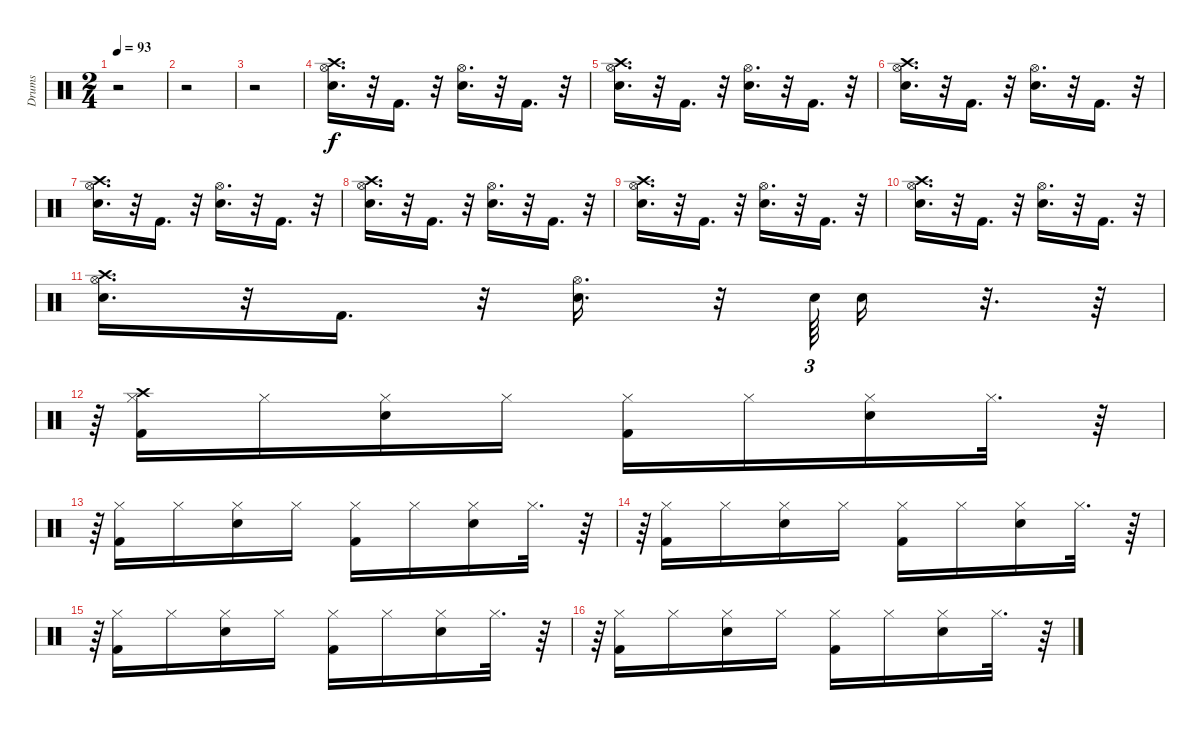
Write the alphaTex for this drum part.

\track ("Drums" "Drums") {instrument percussion}
\staff {score}
\articulation defaults
\ts (2 4)
\tempo 93
\clef neutral
\ks c
r.2{dy f} |
r.2 |
r.2 |
("Hi-Hat (open)" "Snare (hit) 2" "Crash high (hit)").16{d} r.32 "Kick (hit) 2".16{d} r.32 ("Hi-Hat (open)" "Snare (hit) 2").16{d} r.32 "Kick (hit) 2".16{d} r.32 |
("Hi-Hat (open)" "Snare (hit) 2" "Crash high (hit)").16{d} r.32 "Kick (hit) 2".16{d} r.32 ("Hi-Hat (open)" "Snare (hit) 2").16{d} r.32 "Kick (hit) 2".16{d} r.32 |
("Hi-Hat (open)" "Snare (hit) 2" "Crash high (hit)").16{d} r.32 "Kick (hit) 2".16{d} r.32 ("Hi-Hat (open)" "Snare (hit) 2").16{d} r.32 "Kick (hit) 2".16{d} r.32 |
("Hi-Hat (open)" "Snare (hit) 2" "Crash high (hit)").16{d} r.32 "Kick (hit) 2".16{d} r.32 ("Hi-Hat (open)" "Snare (hit) 2").16{d} r.32 "Kick (hit) 2".16{d} r.32 |
("Hi-Hat (open)" "Snare (hit) 2" "Crash high (hit)").16{d} r.32 "Kick (hit) 2".16{d} r.32 ("Hi-Hat (open)" "Snare (hit) 2").16{d} r.32 "Kick (hit) 2".16{d} r.32 |
("Hi-Hat (open)" "Snare (hit) 2" "Crash high (hit)").16{d} r.32 "Kick (hit) 2".16{d} r.32 ("Hi-Hat (open)" "Snare (hit) 2").16{d} r.32 "Kick (hit) 2".16{d} r.32 |
("Hi-Hat (open)" "Snare (hit) 2" "Crash high (hit)").16{d} r.32 "Kick (hit) 2".16{d} r.32 ("Hi-Hat (open)" "Snare (hit) 2").16{d} r.32 "Kick (hit) 2".16{d} r.32 |
("Hi-Hat (open)" "Snare (hit) 2" "Crash high (hit)").16{d} r.32 "Kick (hit) 2".16{d} r.32 ("Hi-Hat (open)" "Snare (hit) 2").16{d} r.32 "Snare (hit) 2".64{tu (3 2)} "Snare (hit) 2".16 r.32{d} r.64 |
r.64{tu (3 2)} ("Crash high (hit)" "Kick (hit) 2" "Hi-Hat (closed)").16 "Hi-Hat (closed)".16 ("Snare (hit) 2" "Hi-Hat (closed)").16 "Hi-Hat (closed)".16 ("Kick (hit) 2" "Hi-Hat (closed)").16 "Hi-Hat (closed)".16 ("Snare (hit) 2" "Hi-Hat (closed)").16 "Hi-Hat (closed)".32{d} r.64 |
r.64{tu (3 2)} ("Kick (hit) 2" "Hi-Hat (closed)").16 "Hi-Hat (closed)".16 ("Snare (hit) 2" "Hi-Hat (closed)").16 "Hi-Hat (closed)".16 ("Kick (hit) 2" "Hi-Hat (closed)").16 "Hi-Hat (closed)".16 ("Snare (hit) 2" "Hi-Hat (closed)").16 "Hi-Hat (closed)".32{d} r.64 |
r.64{tu (3 2)} ("Kick (hit) 2" "Hi-Hat (closed)").16 "Hi-Hat (closed)".16 ("Snare (hit) 2" "Hi-Hat (closed)").16 "Hi-Hat (closed)".16 ("Kick (hit) 2" "Hi-Hat (closed)").16 "Hi-Hat (closed)".16 ("Snare (hit) 2" "Hi-Hat (closed)").16 "Hi-Hat (closed)".32{d} r.64 |
r.64{tu (3 2)} ("Kick (hit) 2" "Hi-Hat (closed)").16 "Hi-Hat (closed)".16 ("Snare (hit) 2" "Hi-Hat (closed)").16 "Hi-Hat (closed)".16 ("Kick (hit) 2" "Hi-Hat (closed)").16 "Hi-Hat (closed)".16 ("Snare (hit) 2" "Hi-Hat (closed)").16 "Hi-Hat (closed)".32{d} r.64 |
r.64{tu (3 2)} ("Kick (hit) 2" "Hi-Hat (closed)").16 "Hi-Hat (closed)".16 ("Snare (hit) 2" "Hi-Hat (closed)").16 "Hi-Hat (closed)".16 ("Kick (hit) 2" "Hi-Hat (closed)").16 "Hi-Hat (closed)".16 ("Snare (hit) 2" "Hi-Hat (closed)").16 "Hi-Hat (closed)".32{d} r.64
